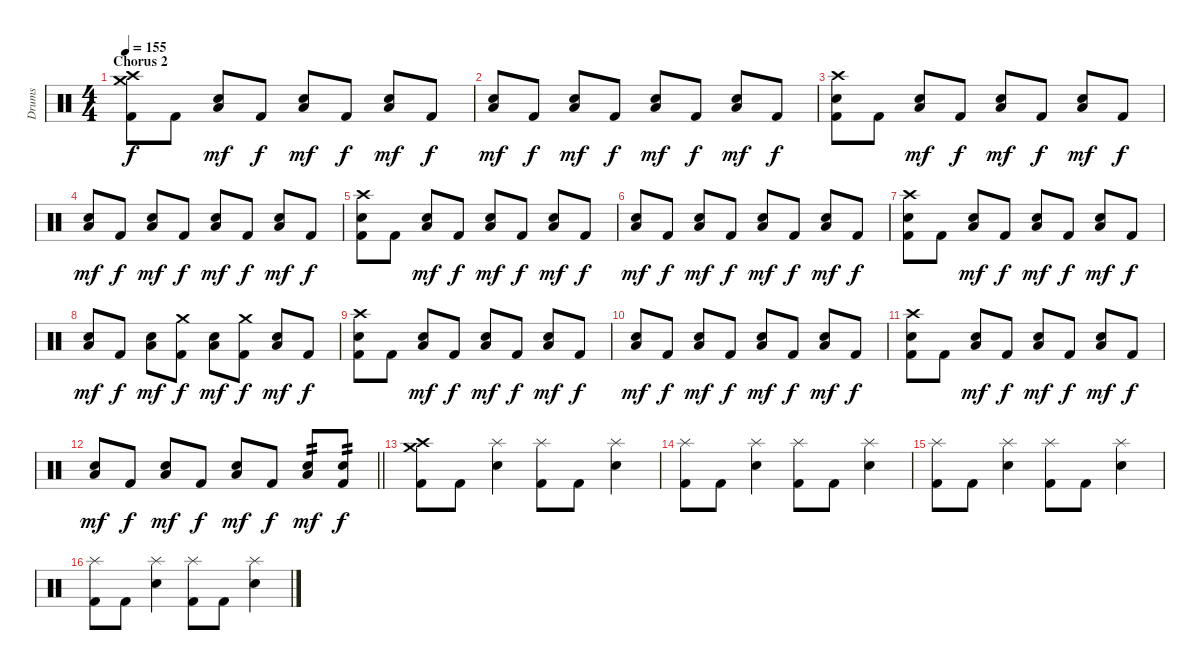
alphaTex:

\track ("Drums" "Drums") {instrument percussion}
\staff {score}
\articulation defaults
\ts (4 4)
\section ("" "Chorus 2")
\tempo 155
\clef neutral
\ks c
("Crash high (hit)" "Crash medium (hit)" "Kick (hit) 2").8{dy f} "Kick (hit) 2".8 ("Snare (hit) 2" "Low Floor Tom (hit)").8{dy mf} "Kick (hit) 2".8{dy f} ("Snare (hit) 2" "Low Floor Tom (hit)").8{dy mf} "Kick (hit) 2".8{dy f} ("Snare (hit) 2" "Low Floor Tom (hit)").8{dy mf} "Kick (hit) 2".8{dy f} |
("Snare (hit) 2" "Low Floor Tom (hit)").8{dy mf} "Kick (hit) 2".8{dy f} ("Snare (hit) 2" "Low Floor Tom (hit)").8{dy mf} "Kick (hit) 2".8{dy f} ("Snare (hit) 2" "Low Floor Tom (hit)").8{dy mf} "Kick (hit) 2".8{dy f} ("Snare (hit) 2" "Low Floor Tom (hit)").8{dy mf} "Kick (hit) 2".8{dy f} |
("Crash high (hit)" "Snare (hit) 2" "Kick (hit) 2").8 "Kick (hit) 2".8 ("Snare (hit) 2" "Low Floor Tom (hit)").8{dy mf} "Kick (hit) 2".8{dy f} ("Snare (hit) 2" "Low Floor Tom (hit)").8{dy mf} "Kick (hit) 2".8{dy f} ("Snare (hit) 2" "Low Floor Tom (hit)").8{dy mf} "Kick (hit) 2".8{dy f} |
("Snare (hit) 2" "Low Floor Tom (hit)").8{dy mf} "Kick (hit) 2".8{dy f} ("Snare (hit) 2" "Low Floor Tom (hit)").8{dy mf} "Kick (hit) 2".8{dy f} ("Snare (hit) 2" "Low Floor Tom (hit)").8{dy mf} "Kick (hit) 2".8{dy f} ("Snare (hit) 2" "Low Floor Tom (hit)").8{dy mf} "Kick (hit) 2".8{dy f} |
("Crash high (hit)" "Snare (hit) 2" "Kick (hit) 2").8 "Kick (hit) 2".8 ("Snare (hit) 2" "Low Floor Tom (hit)").8{dy mf} "Kick (hit) 2".8{dy f} ("Snare (hit) 2" "Low Floor Tom (hit)").8{dy mf} "Kick (hit) 2".8{dy f} ("Snare (hit) 2" "Low Floor Tom (hit)").8{dy mf} "Kick (hit) 2".8{dy f} |
("Snare (hit) 2" "Low Floor Tom (hit)").8{dy mf} "Kick (hit) 2".8{dy f} ("Snare (hit) 2" "Low Floor Tom (hit)").8{dy mf} "Kick (hit) 2".8{dy f} ("Snare (hit) 2" "Low Floor Tom (hit)").8{dy mf} "Kick (hit) 2".8{dy f} ("Snare (hit) 2" "Low Floor Tom (hit)").8{dy mf} "Kick (hit) 2".8{dy f} |
("Crash high (hit)" "Snare (hit) 2" "Kick (hit) 2").8 "Kick (hit) 2".8 ("Snare (hit) 2" "Low Floor Tom (hit)").8{dy mf} "Kick (hit) 2".8{dy f} ("Snare (hit) 2" "Low Floor Tom (hit)").8{dy mf} "Kick (hit) 2".8{dy f} ("Snare (hit) 2" "Low Floor Tom (hit)").8{dy mf} "Kick (hit) 2".8{dy f} |
("Snare (hit) 2" "Low Floor Tom (hit)").8{dy mf} "Kick (hit) 2".8{dy f} ("Snare (hit) 2" "Low Floor Tom (hit)").8{dy mf} ("Crash medium (hit)" "Kick (hit) 2").8{dy f} ("Snare (hit) 2" "Low Floor Tom (hit)").8{dy mf} ("Crash medium (hit)" "Kick (hit) 2").8{dy f} ("Snare (hit) 2" "Low Floor Tom (hit)").8{dy mf} "Kick (hit) 2".8{dy f} |
("Crash high (hit)" "Snare (hit) 2" "Kick (hit) 2").8 "Kick (hit) 2".8 ("Snare (hit) 2" "Low Floor Tom (hit)").8{dy mf} "Kick (hit) 2".8{dy f} ("Snare (hit) 2" "Low Floor Tom (hit)").8{dy mf} "Kick (hit) 2".8{dy f} ("Snare (hit) 2" "Low Floor Tom (hit)").8{dy mf} "Kick (hit) 2".8{dy f} |
("Snare (hit) 2" "Low Floor Tom (hit)").8{dy mf} "Kick (hit) 2".8{dy f} ("Snare (hit) 2" "Low Floor Tom (hit)").8{dy mf} "Kick (hit) 2".8{dy f} ("Snare (hit) 2" "Low Floor Tom (hit)").8{dy mf} "Kick (hit) 2".8{dy f} ("Snare (hit) 2" "Low Floor Tom (hit)").8{dy mf} "Kick (hit) 2".8{dy f} |
("Crash high (hit)" "Snare (hit) 2" "Kick (hit) 2").8 "Kick (hit) 2".8 ("Snare (hit) 2" "Low Floor Tom (hit)").8{dy mf} "Kick (hit) 2".8{dy f} ("Snare (hit) 2" "Low Floor Tom (hit)").8{dy mf} "Kick (hit) 2".8{dy f} ("Snare (hit) 2" "Low Floor Tom (hit)").8{dy mf} "Kick (hit) 2".8{dy f} |
\barLineRight lightlight
("Snare (hit) 2" "Low Floor Tom (hit)").8{dy mf} "Kick (hit) 2".8{dy f} ("Snare (hit) 2" "Low Floor Tom (hit)").8{dy mf} "Kick (hit) 2".8{dy f} ("Snare (hit) 2" "Low Floor Tom (hit)").8{dy mf} "Kick (hit) 2".8{dy f} ("Snare (hit) 2" "Low Floor Tom (hit)").8{tp 2 dy mf} ("Snare (hit) 2" "Kick (hit) 2").8{tp 2 dy f} |
\section ("" "")
("Crash high (hit)" "Crash medium (hit)" "Kick (hit) 2").8 "Kick (hit) 2".8 ("Splash (hit)" "Snare (hit) 2").4 ("Splash (hit)" "Kick (hit) 2").8 "Kick (hit) 2".8 ("Splash (hit)" "Snare (hit) 2").4 |
("Splash (hit)" "Kick (hit) 2").8 "Kick (hit) 2".8 ("Splash (hit)" "Snare (hit) 2").4 ("Splash (hit)" "Kick (hit) 2").8 "Kick (hit) 2".8 ("Splash (hit)" "Snare (hit) 2").4 |
("Splash (hit)" "Kick (hit) 2").8 "Kick (hit) 2".8 ("Splash (hit)" "Snare (hit) 2").4 ("Splash (hit)" "Kick (hit) 2").8 "Kick (hit) 2".8 ("Splash (hit)" "Snare (hit) 2").4 |
("Splash (hit)" "Kick (hit) 2").8 "Kick (hit) 2".8 ("Splash (hit)" "Snare (hit) 2").4 ("Splash (hit)" "Kick (hit) 2").8 "Kick (hit) 2".8 ("Splash (hit)" "Snare (hit) 2").4
